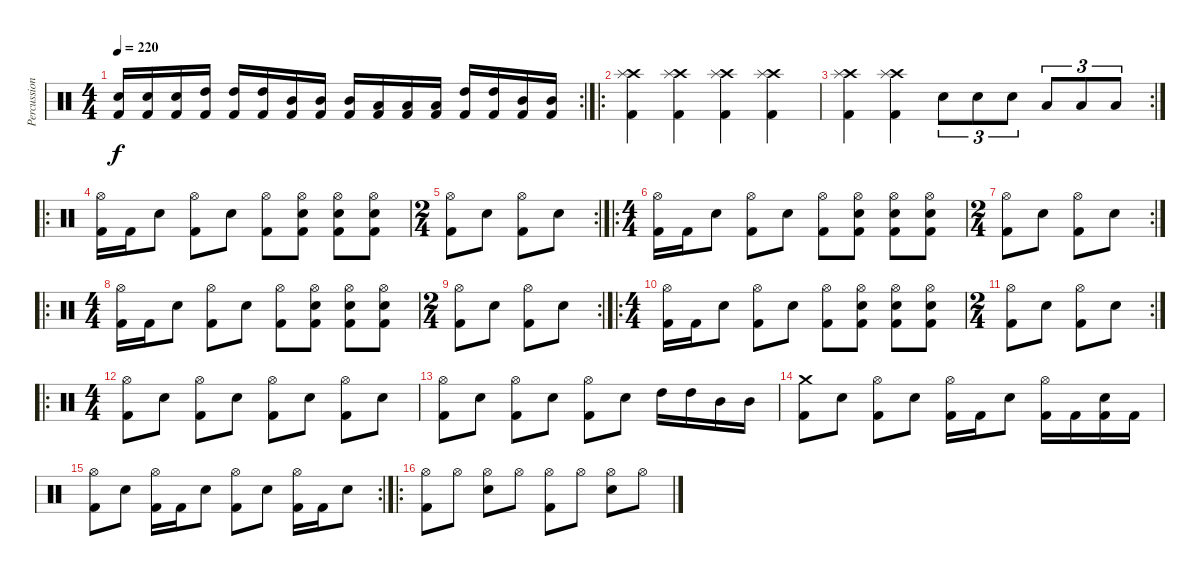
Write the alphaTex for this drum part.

\track ("Percussions" "Percussion") {instrument percussion}
\staff {score}
\articulation defaults
\rc 2
\ts (4 4)
\tempo 220
\clef neutral
\ks c
("Snare (hit) 2" "Kick (hit) 2").16{dy f} ("Snare (hit) 2" "Kick (hit) 2").16 ("Snare (hit) 2" "Kick (hit) 2").16 ("High Tom (hit)" "Kick (hit) 2").16 ("High Tom (hit)" "Kick (hit) 2").16 ("High Tom (hit)" "Kick (hit) 2").16 ("Mid Tom (hit)" "Kick (hit) 2").16 ("Mid Tom (hit)" "Kick (hit) 2").16 ("Mid Tom (hit)" "Kick (hit) 2").16 ("Low Tom (hit)" "Kick (hit) 2").16 ("Low Tom (hit)" "Kick (hit) 2").16 ("Low Tom (hit)" "Kick (hit) 2").16 ("High Tom (hit)" "Kick (hit) 2").16 ("High Tom (hit)" "Kick (hit) 2").16 ("Mid Tom (hit)" "Kick (hit) 2").16 ("Mid Tom (hit)" "Kick (hit) 2").16 |
\ro
("Crash high (hit)" "Splash (hit)" "Kick (hit) 2").4 ("Crash high (hit)" "Splash (hit)" "Kick (hit) 2").4 ("Crash high (hit)" "Splash (hit)" "Kick (hit) 2").4 ("Crash high (hit)" "Splash (hit)" "Kick (hit) 2").4 |
\rc 2
("Crash high (hit)" "Splash (hit)" "Kick (hit) 2").4 ("Crash high (hit)" "Splash (hit)" "Kick (hit) 2").4 "Snare (hit) 2".8{tu (3 2)} "Snare (hit) 2".8{tu (3 2)} "Snare (hit) 2".8{tu (3 2)} "Low Tom (hit)".8{tu (3 2)} "Low Tom (hit)".8{tu (3 2)} "Low Tom (hit)".8{tu (3 2)} |
\ro
("Hi-Hat (open)" "Kick (hit) 2").16 "Kick (hit) 2".16 "Snare (hit) 2".8 ("Hi-Hat (open)" "Kick (hit) 2").8 "Snare (hit) 2".8 ("Hi-Hat (open)" "Kick (hit) 2").8 ("Hi-Hat (open)" "Snare (hit) 2" "Kick (hit) 2").8 ("Hi-Hat (open)" "Snare (hit) 2" "Kick (hit) 2").8 ("Hi-Hat (open)" "Snare (hit) 2" "Kick (hit) 2").8 |
\rc 2
\ts (2 4)
("Hi-Hat (open)" "Kick (hit) 2").8 "Snare (hit) 2".8 ("Hi-Hat (open)" "Kick (hit) 2").8 "Snare (hit) 2".8 |
\ro
\ts (4 4)
("Hi-Hat (open)" "Kick (hit) 2").16 "Kick (hit) 2".16 "Snare (hit) 2".8 ("Hi-Hat (open)" "Kick (hit) 2").8 "Snare (hit) 2".8 ("Hi-Hat (open)" "Kick (hit) 2").8 ("Hi-Hat (open)" "Snare (hit) 2" "Kick (hit) 2").8 ("Hi-Hat (open)" "Snare (hit) 2" "Kick (hit) 2").8 ("Hi-Hat (open)" "Snare (hit) 2" "Kick (hit) 2").8 |
\rc 2
\ts (2 4)
("Hi-Hat (open)" "Kick (hit) 2").8 "Snare (hit) 2".8 ("Hi-Hat (open)" "Kick (hit) 2").8 "Snare (hit) 2".8 |
\ro
\ts (4 4)
("Hi-Hat (open)" "Kick (hit) 2").16 "Kick (hit) 2".16 "Snare (hit) 2".8 ("Hi-Hat (open)" "Kick (hit) 2").8 "Snare (hit) 2".8 ("Hi-Hat (open)" "Kick (hit) 2").8 ("Hi-Hat (open)" "Snare (hit) 2" "Kick (hit) 2").8 ("Hi-Hat (open)" "Snare (hit) 2" "Kick (hit) 2").8 ("Hi-Hat (open)" "Snare (hit) 2" "Kick (hit) 2").8 |
\rc 2
\ts (2 4)
("Hi-Hat (open)" "Kick (hit) 2").8 "Snare (hit) 2".8 ("Hi-Hat (open)" "Kick (hit) 2").8 "Snare (hit) 2".8 |
\ro
\ts (4 4)
("Hi-Hat (open)" "Kick (hit) 2").16 "Kick (hit) 2".16 "Snare (hit) 2".8 ("Hi-Hat (open)" "Kick (hit) 2").8 "Snare (hit) 2".8 ("Hi-Hat (open)" "Kick (hit) 2").8 ("Hi-Hat (open)" "Snare (hit) 2" "Kick (hit) 2").8 ("Hi-Hat (open)" "Snare (hit) 2" "Kick (hit) 2").8 ("Hi-Hat (open)" "Snare (hit) 2" "Kick (hit) 2").8 |
\rc 2
\ts (2 4)
("Hi-Hat (open)" "Kick (hit) 2").8 "Snare (hit) 2".8 ("Hi-Hat (open)" "Kick (hit) 2").8 "Snare (hit) 2".8 |
\ro
\ts (4 4)
("Hi-Hat (open)" "Kick (hit) 2").8 "Snare (hit) 2".8 ("Hi-Hat (open)" "Kick (hit) 2").8 "Snare (hit) 2".8 ("Hi-Hat (open)" "Kick (hit) 2").8 "Snare (hit) 2".8 ("Hi-Hat (open)" "Kick (hit) 2").8 "Snare (hit) 2".8 |
("Hi-Hat (open)" "Kick (hit) 2").8 "Snare (hit) 2".8 ("Hi-Hat (open)" "Kick (hit) 2").8 "Snare (hit) 2".8 ("Hi-Hat (open)" "Kick (hit) 2").8 "Snare (hit) 2".8 "High Tom (hit)".16 "High Tom (hit)".16 "Mid Tom (hit)".16 "Mid Tom (hit)".16 |
("Crash medium (hit)" "Kick (hit) 2").8 "Snare (hit) 2".8 ("Hi-Hat (open)" "Kick (hit) 2").8 "Snare (hit) 2".8 ("Hi-Hat (open)" "Kick (hit) 2").16 "Kick (hit) 2".16 "Snare (hit) 2".8 ("Hi-Hat (open)" "Kick (hit) 2").16 "Kick (hit) 2".16 ("Snare (hit) 2" "Kick (hit) 2").16 "Kick (hit) 2".16 |
\rc 2
("Hi-Hat (open)" "Kick (hit) 2").8 "Snare (hit) 2".8 ("Hi-Hat (open)" "Kick (hit) 2").16 "Kick (hit) 2".16 "Snare (hit) 2".8 ("Hi-Hat (open)" "Kick (hit) 2").8 "Snare (hit) 2".8 ("Hi-Hat (open)" "Kick (hit) 2").16 "Kick (hit) 2".16 "Snare (hit) 2".8 |
\ro
("Hi-Hat (open)" "Kick (hit) 2").8 "Hi-Hat (open)".8 ("Hi-Hat (open)" "Snare (hit) 2").8 "Hi-Hat (open)".8 ("Hi-Hat (open)" "Kick (hit) 2").8 "Hi-Hat (open)".8 ("Hi-Hat (open)" "Snare (hit) 2").8 "Hi-Hat (open)".8
